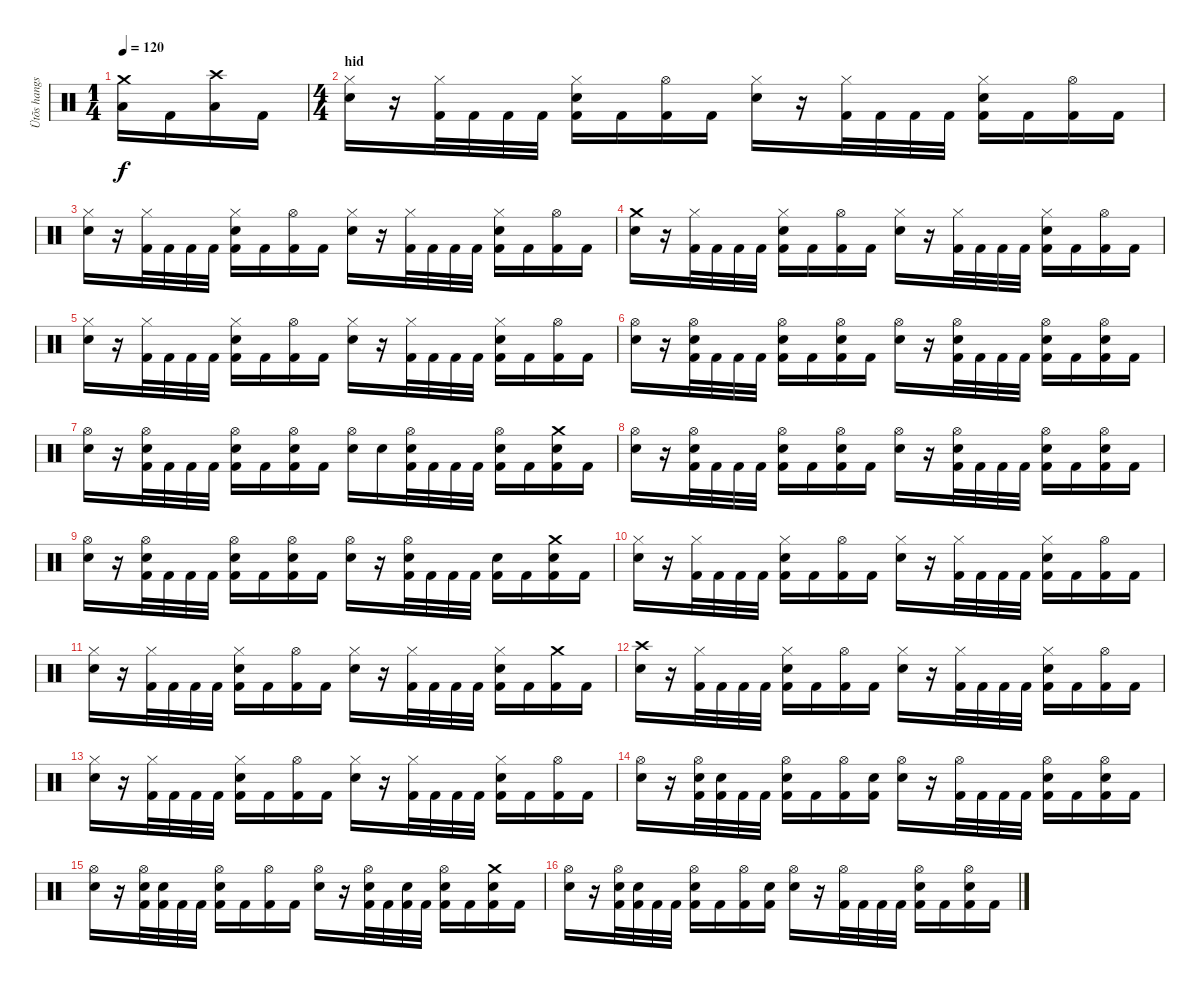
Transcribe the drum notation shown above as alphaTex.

\track ("Ütõs hangszer" "Ütõs hangs") {instrument percussion}
\staff {score}
\articulation defaults
\ts (1 4)
\tempo 120
\clef neutral
\ks c
("Crash medium (hit)" "Low Floor Tom (hit)").16{dy f} "Kick (hit) 2".16 ("Crash high (hit)" "Low Floor Tom (hit)").16 "Kick (hit) 2".16 |
\ts (4 4)
\section ("" "hid")
("Hi-Hat (closed)" "Electric Snare (hit)").16 r.16 ("Hi-Hat (closed)" "Kick (hit) 2").32 "Kick (hit) 2".32 "Kick (hit) 2".32 "Kick (hit) 2".32 ("Hi-Hat (closed)" "Electric Snare (hit)" "Kick (hit) 2").16 "Kick (hit) 2".16 ("Hi-Hat (open)" "Kick (hit) 2").16 "Kick (hit) 2".16 ("Hi-Hat (closed)" "Electric Snare (hit)").16 r.16 ("Hi-Hat (closed)" "Kick (hit) 2").32 "Kick (hit) 2".32 "Kick (hit) 2".32 "Kick (hit) 2".32 ("Hi-Hat (closed)" "Electric Snare (hit)" "Kick (hit) 2").16 "Kick (hit) 2".16 ("Hi-Hat (open)" "Kick (hit) 2").16 "Kick (hit) 2".16 |
("Hi-Hat (closed)" "Electric Snare (hit)").16 r.16 ("Hi-Hat (closed)" "Kick (hit) 2").32 "Kick (hit) 2".32 "Kick (hit) 2".32 "Kick (hit) 2".32 ("Hi-Hat (closed)" "Electric Snare (hit)" "Kick (hit) 2").16 "Kick (hit) 2".16 ("Hi-Hat (open)" "Kick (hit) 2").16 "Kick (hit) 2".16 ("Hi-Hat (closed)" "Electric Snare (hit)").16 r.16 ("Hi-Hat (closed)" "Kick (hit) 2").32 "Kick (hit) 2".32 "Kick (hit) 2".32 "Kick (hit) 2".32 ("Hi-Hat (closed)" "Electric Snare (hit)" "Kick (hit) 2").16 "Kick (hit) 2".16 ("Hi-Hat (open)" "Kick (hit) 2").16 "Kick (hit) 2".16 |
("Crash medium (hit)" "Electric Snare (hit)").16 r.16 ("Hi-Hat (closed)" "Kick (hit) 2").32 "Kick (hit) 2".32 "Kick (hit) 2".32 "Kick (hit) 2".32 ("Hi-Hat (closed)" "Electric Snare (hit)" "Kick (hit) 2").16 "Kick (hit) 2".16 ("Hi-Hat (open)" "Kick (hit) 2").16 "Kick (hit) 2".16 ("Hi-Hat (closed)" "Electric Snare (hit)").16 r.16 ("Hi-Hat (closed)" "Kick (hit) 2").32 "Kick (hit) 2".32 "Kick (hit) 2".32 "Kick (hit) 2".32 ("Hi-Hat (closed)" "Electric Snare (hit)" "Kick (hit) 2").16 "Kick (hit) 2".16 ("Hi-Hat (open)" "Kick (hit) 2").16 "Kick (hit) 2".16 |
("Hi-Hat (closed)" "Electric Snare (hit)").16 r.16 ("Hi-Hat (closed)" "Kick (hit) 2").32 "Kick (hit) 2".32 "Kick (hit) 2".32 "Kick (hit) 2".32 ("Hi-Hat (closed)" "Electric Snare (hit)" "Kick (hit) 2").16 "Kick (hit) 2".16 ("Hi-Hat (open)" "Kick (hit) 2").16 "Kick (hit) 2".16 ("Hi-Hat (closed)" "Electric Snare (hit)").16 r.16 ("Hi-Hat (closed)" "Kick (hit) 2").32 "Kick (hit) 2".32 "Kick (hit) 2".32 "Kick (hit) 2".32 ("Hi-Hat (closed)" "Electric Snare (hit)" "Kick (hit) 2").16 "Kick (hit) 2".16 ("Hi-Hat (open)" "Kick (hit) 2").16 "Kick (hit) 2".16 |
("Hi-Hat (open)" "Electric Snare (hit)").16 r.16 ("Hi-Hat (open)" "Electric Snare (hit)" "Kick (hit) 2").32 "Kick (hit) 2".32 "Kick (hit) 2".32 "Kick (hit) 2".32 ("Hi-Hat (open)" "Electric Snare (hit)" "Kick (hit) 2").16 "Kick (hit) 2".16 ("Hi-Hat (open)" "Electric Snare (hit)" "Kick (hit) 2").16 "Kick (hit) 2".16 ("Hi-Hat (open)" "Electric Snare (hit)").16 r.16 ("Hi-Hat (open)" "Electric Snare (hit)" "Kick (hit) 2").32 "Kick (hit) 2".32 "Kick (hit) 2".32 "Kick (hit) 2".32 ("Hi-Hat (open)" "Electric Snare (hit)" "Kick (hit) 2").16 "Kick (hit) 2".16 ("Hi-Hat (open)" "Electric Snare (hit)" "Kick (hit) 2").16 "Kick (hit) 2".16 |
("Hi-Hat (open)" "Electric Snare (hit)").16 r.16 ("Hi-Hat (open)" "Electric Snare (hit)" "Kick (hit) 2").32 "Kick (hit) 2".32 "Kick (hit) 2".32 "Kick (hit) 2".32 ("Hi-Hat (open)" "Electric Snare (hit)" "Kick (hit) 2").16 "Kick (hit) 2".16 ("Hi-Hat (open)" "Electric Snare (hit)" "Kick (hit) 2").16 "Kick (hit) 2".16 ("Hi-Hat (open)" "Electric Snare (hit)").16 "Electric Snare (hit)".16 ("Hi-Hat (open)" "Electric Snare (hit)" "Kick (hit) 2").32 "Kick (hit) 2".32 "Kick (hit) 2".32 "Kick (hit) 2".32 ("Hi-Hat (open)" "Electric Snare (hit)" "Kick (hit) 2").16 "Kick (hit) 2".16 ("Crash medium (hit)" "Electric Snare (hit)" "Kick (hit) 2").16 "Kick (hit) 2".16 |
("Hi-Hat (open)" "Electric Snare (hit)").16 r.16 ("Hi-Hat (open)" "Electric Snare (hit)" "Kick (hit) 2").32 "Kick (hit) 2".32 "Kick (hit) 2".32 "Kick (hit) 2".32 ("Hi-Hat (open)" "Electric Snare (hit)" "Kick (hit) 2").16 "Kick (hit) 2".16 ("Hi-Hat (open)" "Electric Snare (hit)" "Kick (hit) 2").16 "Kick (hit) 2".16 ("Hi-Hat (open)" "Electric Snare (hit)").16 r.16 ("Hi-Hat (open)" "Electric Snare (hit)" "Kick (hit) 2").32 "Kick (hit) 2".32 "Kick (hit) 2".32 "Kick (hit) 2".32 ("Hi-Hat (open)" "Electric Snare (hit)" "Kick (hit) 2").16 "Kick (hit) 2".16 ("Hi-Hat (open)" "Electric Snare (hit)" "Kick (hit) 2").16 "Kick (hit) 2".16 |
("Hi-Hat (open)" "Electric Snare (hit)").16 r.16 ("Hi-Hat (open)" "Electric Snare (hit)" "Kick (hit) 2").32 "Kick (hit) 2".32 "Kick (hit) 2".32 "Kick (hit) 2".32 ("Hi-Hat (open)" "Electric Snare (hit)" "Kick (hit) 2").16 "Kick (hit) 2".16 ("Hi-Hat (open)" "Electric Snare (hit)" "Kick (hit) 2").16 "Kick (hit) 2".16 ("Hi-Hat (open)" "Electric Snare (hit)").16 r.16 ("Hi-Hat (open)" "Electric Snare (hit)" "Kick (hit) 2").32 "Kick (hit) 2".32 "Kick (hit) 2".32 "Kick (hit) 2".32 ("Electric Snare (hit)" "Kick (hit) 2").16 "Kick (hit) 2".16 ("Crash medium (hit)" "Electric Snare (hit)" "Kick (hit) 2").16 "Kick (hit) 2".16 |
("Hi-Hat (closed)" "Electric Snare (hit)").16 r.16 ("Hi-Hat (closed)" "Kick (hit) 2").32 "Kick (hit) 2".32 "Kick (hit) 2".32 "Kick (hit) 2".32 ("Hi-Hat (closed)" "Electric Snare (hit)" "Kick (hit) 2").16 "Kick (hit) 2".16 ("Hi-Hat (open)" "Kick (hit) 2").16 "Kick (hit) 2".16 ("Hi-Hat (closed)" "Electric Snare (hit)").16 r.16 ("Hi-Hat (closed)" "Kick (hit) 2").32 "Kick (hit) 2".32 "Kick (hit) 2".32 "Kick (hit) 2".32 ("Hi-Hat (closed)" "Electric Snare (hit)" "Kick (hit) 2").16 "Kick (hit) 2".16 ("Hi-Hat (open)" "Kick (hit) 2").16 "Kick (hit) 2".16 |
("Hi-Hat (closed)" "Electric Snare (hit)").16 r.16 ("Hi-Hat (closed)" "Kick (hit) 2").32 "Kick (hit) 2".32 "Kick (hit) 2".32 "Kick (hit) 2".32 ("Hi-Hat (closed)" "Electric Snare (hit)" "Kick (hit) 2").16 "Kick (hit) 2".16 ("Hi-Hat (open)" "Kick (hit) 2").16 "Kick (hit) 2".16 ("Hi-Hat (closed)" "Electric Snare (hit)").16 r.16 ("Hi-Hat (closed)" "Kick (hit) 2").32 "Kick (hit) 2".32 "Kick (hit) 2".32 "Kick (hit) 2".32 ("Hi-Hat (closed)" "Electric Snare (hit)" "Kick (hit) 2").16 "Kick (hit) 2".16 ("Crash medium (hit)" "Kick (hit) 2").16 "Kick (hit) 2".16 |
("Crash high (hit)" "Electric Snare (hit)").16 r.16 ("Hi-Hat (closed)" "Kick (hit) 2").32 "Kick (hit) 2".32 "Kick (hit) 2".32 "Kick (hit) 2".32 ("Hi-Hat (closed)" "Electric Snare (hit)" "Kick (hit) 2").16 "Kick (hit) 2".16 ("Hi-Hat (open)" "Kick (hit) 2").16 "Kick (hit) 2".16 ("Hi-Hat (closed)" "Electric Snare (hit)").16 r.16 ("Hi-Hat (closed)" "Kick (hit) 2").32 "Kick (hit) 2".32 "Kick (hit) 2".32 "Kick (hit) 2".32 ("Hi-Hat (closed)" "Electric Snare (hit)" "Kick (hit) 2").16 "Kick (hit) 2".16 ("Hi-Hat (open)" "Kick (hit) 2").16 "Kick (hit) 2".16 |
("Hi-Hat (closed)" "Electric Snare (hit)").16 r.16 ("Hi-Hat (closed)" "Kick (hit) 2").32 "Kick (hit) 2".32 "Kick (hit) 2".32 "Kick (hit) 2".32 ("Hi-Hat (closed)" "Electric Snare (hit)" "Kick (hit) 2").16 "Kick (hit) 2".16 ("Hi-Hat (open)" "Kick (hit) 2").16 "Kick (hit) 2".16 ("Hi-Hat (closed)" "Electric Snare (hit)").16 r.16 ("Hi-Hat (closed)" "Kick (hit) 2").32 "Kick (hit) 2".32 "Kick (hit) 2".32 "Kick (hit) 2".32 ("Hi-Hat (closed)" "Electric Snare (hit)" "Kick (hit) 2").16 "Kick (hit) 2".16 ("Hi-Hat (open)" "Kick (hit) 2").16 "Kick (hit) 2".16 |
("Hi-Hat (open)" "Electric Snare (hit)").16 r.16 ("Hi-Hat (open)" "Electric Snare (hit)" "Kick (hit) 2").32 ("Electric Snare (hit)" "Kick (hit) 2").32 "Kick (hit) 2".32 "Kick (hit) 2".32 ("Hi-Hat (open)" "Electric Snare (hit)" "Kick (hit) 2").16 "Kick (hit) 2".16 ("Hi-Hat (open)" "Kick (hit) 2").16 ("Electric Snare (hit)" "Kick (hit) 2").16 ("Hi-Hat (open)" "Electric Snare (hit)").16 r.16 ("Hi-Hat (open)" "Kick (hit) 2").32 "Kick (hit) 2".32 "Kick (hit) 2".32 "Kick (hit) 2".32 ("Hi-Hat (open)" "Electric Snare (hit)" "Kick (hit) 2").16 "Kick (hit) 2".16 ("Hi-Hat (open)" "Electric Snare (hit)" "Kick (hit) 2").16 "Kick (hit) 2".16 |
("Hi-Hat (open)" "Electric Snare (hit)").16 r.16 ("Hi-Hat (open)" "Electric Snare (hit)" "Kick (hit) 2").32 ("Electric Snare (hit)" "Kick (hit) 2").32 "Kick (hit) 2".32 "Kick (hit) 2".32 ("Hi-Hat (open)" "Electric Snare (hit)" "Kick (hit) 2").16 "Kick (hit) 2".16 ("Hi-Hat (open)" "Kick (hit) 2").16 "Kick (hit) 2".16 ("Hi-Hat (open)" "Electric Snare (hit)").16 r.16 ("Hi-Hat (open)" "Electric Snare (hit)" "Kick (hit) 2").32 "Kick (hit) 2".32 ("Electric Snare (hit)" "Kick (hit) 2").32 "Kick (hit) 2".32 ("Hi-Hat (open)" "Electric Snare (hit)" "Kick (hit) 2").16 "Kick (hit) 2".16 ("Crash medium (hit)" "Electric Snare (hit)" "Kick (hit) 2").16 "Kick (hit) 2".16 |
("Hi-Hat (open)" "Electric Snare (hit)").16 r.16 ("Hi-Hat (open)" "Electric Snare (hit)" "Kick (hit) 2").32 ("Electric Snare (hit)" "Kick (hit) 2").32 "Kick (hit) 2".32 "Kick (hit) 2".32 ("Hi-Hat (open)" "Electric Snare (hit)" "Kick (hit) 2").16 "Kick (hit) 2".16 ("Hi-Hat (open)" "Kick (hit) 2").16 ("Electric Snare (hit)" "Kick (hit) 2").16 ("Hi-Hat (open)" "Electric Snare (hit)").16 r.16 ("Hi-Hat (open)" "Kick (hit) 2").32 "Kick (hit) 2".32 "Kick (hit) 2".32 "Kick (hit) 2".32 ("Hi-Hat (open)" "Electric Snare (hit)" "Kick (hit) 2").16 "Kick (hit) 2".16 ("Hi-Hat (open)" "Electric Snare (hit)" "Kick (hit) 2").16 "Kick (hit) 2".16
